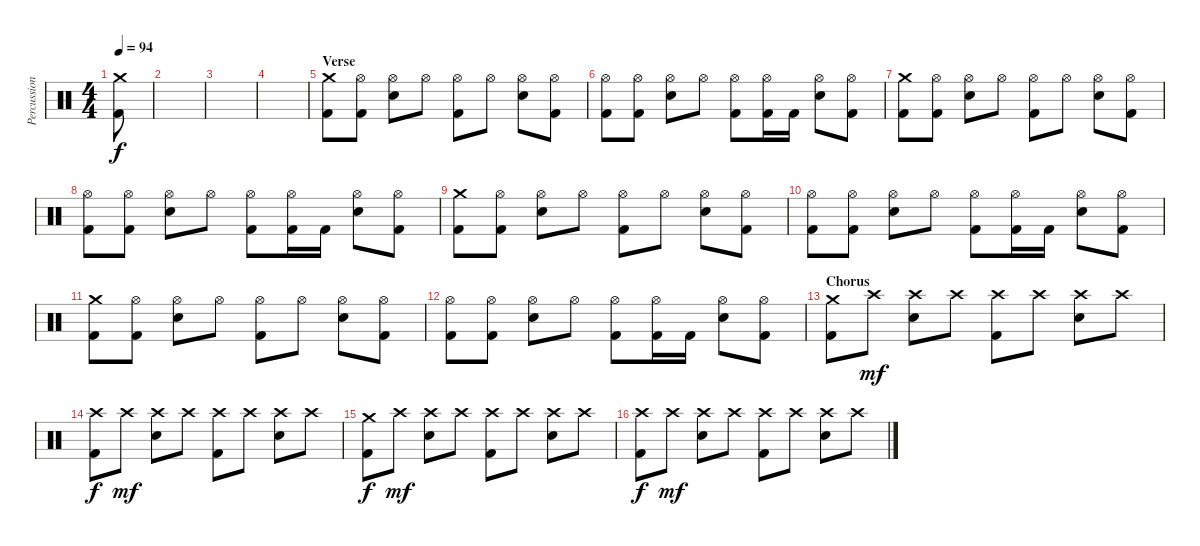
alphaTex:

\track ("Percussion" "Percussion") {instrument percussion}
\staff {score}
\articulation defaults
\ts (4 4)
\tempo 94
\clef neutral
\ks c
("Crash medium (hit)" "Kick (hit) 2").8{dy f} |
|
|
|
\section ("" "Verse")
("Crash medium (hit)" "Kick (hit) 2").8 ("Hi-Hat (open)" "Kick (hit) 2").8 ("Hi-Hat (open)" "Electric Snare (hit)").8 "Hi-Hat (open)".8 ("Hi-Hat (open)" "Kick (hit) 2").8 "Hi-Hat (open)".8 ("Hi-Hat (open)" "Electric Snare (hit)").8 ("Hi-Hat (open)" "Kick (hit) 2").8 |
("Hi-Hat (open)" "Kick (hit) 2").8 ("Hi-Hat (open)" "Kick (hit) 2").8 ("Hi-Hat (open)" "Electric Snare (hit)").8 "Hi-Hat (open)".8 ("Hi-Hat (open)" "Kick (hit) 2").8 ("Hi-Hat (open)" "Kick (hit) 2").16 "Kick (hit) 2".16 ("Hi-Hat (open)" "Electric Snare (hit)").8 ("Hi-Hat (open)" "Kick (hit) 2").8 |
("Crash medium (hit)" "Kick (hit) 2").8 ("Hi-Hat (open)" "Kick (hit) 2").8 ("Hi-Hat (open)" "Electric Snare (hit)").8 "Hi-Hat (open)".8 ("Hi-Hat (open)" "Kick (hit) 2").8 "Hi-Hat (open)".8 ("Hi-Hat (open)" "Electric Snare (hit)").8 ("Hi-Hat (open)" "Kick (hit) 2").8 |
("Hi-Hat (open)" "Kick (hit) 2").8 ("Hi-Hat (open)" "Kick (hit) 2").8 ("Hi-Hat (open)" "Electric Snare (hit)").8 "Hi-Hat (open)".8 ("Hi-Hat (open)" "Kick (hit) 2").8 ("Hi-Hat (open)" "Kick (hit) 2").16 "Kick (hit) 2".16 ("Hi-Hat (open)" "Electric Snare (hit)").8 ("Hi-Hat (open)" "Kick (hit) 2").8 |
("Crash medium (hit)" "Kick (hit) 2").8 ("Hi-Hat (open)" "Kick (hit) 2").8 ("Hi-Hat (open)" "Electric Snare (hit)").8 "Hi-Hat (open)".8 ("Hi-Hat (open)" "Kick (hit) 2").8 "Hi-Hat (open)".8 ("Hi-Hat (open)" "Electric Snare (hit)").8 ("Hi-Hat (open)" "Kick (hit) 2").8 |
("Hi-Hat (open)" "Kick (hit) 2").8 ("Hi-Hat (open)" "Kick (hit) 2").8 ("Hi-Hat (open)" "Electric Snare (hit)").8 "Hi-Hat (open)".8 ("Hi-Hat (open)" "Kick (hit) 2").8 ("Hi-Hat (open)" "Kick (hit) 2").16 "Kick (hit) 2".16 ("Hi-Hat (open)" "Electric Snare (hit)").8 ("Hi-Hat (open)" "Kick (hit) 2").8 |
("Crash medium (hit)" "Kick (hit) 2").8 ("Hi-Hat (open)" "Kick (hit) 2").8 ("Hi-Hat (open)" "Electric Snare (hit)").8 "Hi-Hat (open)".8 ("Hi-Hat (open)" "Kick (hit) 2").8 "Hi-Hat (open)".8 ("Hi-Hat (open)" "Electric Snare (hit)").8 ("Hi-Hat (open)" "Kick (hit) 2").8 |
("Hi-Hat (open)" "Kick (hit) 2").8 ("Hi-Hat (open)" "Kick (hit) 2").8 ("Hi-Hat (open)" "Electric Snare (hit)").8 "Hi-Hat (open)".8 ("Hi-Hat (open)" "Kick (hit) 2").8 ("Hi-Hat (open)" "Kick (hit) 2").16 "Kick (hit) 2".16 ("Hi-Hat (open)" "Electric Snare (hit)").8 ("Hi-Hat (open)" "Kick (hit) 2").8 |
\section ("" "Chorus")
("Crash medium (hit)" "Kick (hit) 2").8 "Crash high (hit)".8{dy mf} ("Crash high (hit)" "Electric Snare (hit)").8 "Crash high (hit)".8 ("Crash high (hit)" "Kick (hit) 2").8 "Crash high (hit)".8 ("Crash high (hit)" "Electric Snare (hit)").8 "Crash high (hit)".8 |
("Crash high (hit)" "Kick (hit) 2").8{dy f} "Crash high (hit)".8{dy mf} ("Crash high (hit)" "Electric Snare (hit)").8 "Crash high (hit)".8 ("Crash high (hit)" "Kick (hit) 2").8 "Crash high (hit)".8 ("Crash high (hit)" "Electric Snare (hit)").8 "Crash high (hit)".8 |
("Crash medium (hit)" "Kick (hit) 2").8{dy f} "Crash high (hit)".8{dy mf} ("Crash high (hit)" "Electric Snare (hit)").8 "Crash high (hit)".8 ("Crash high (hit)" "Kick (hit) 2").8 "Crash high (hit)".8 ("Crash high (hit)" "Electric Snare (hit)").8 "Crash high (hit)".8 |
("Crash high (hit)" "Kick (hit) 2").8{dy f} "Crash high (hit)".8{dy mf} ("Crash high (hit)" "Electric Snare (hit)").8 "Crash high (hit)".8 ("Crash high (hit)" "Kick (hit) 2").8 "Crash high (hit)".8 ("Crash high (hit)" "Electric Snare (hit)").8 "Crash high (hit)".8
